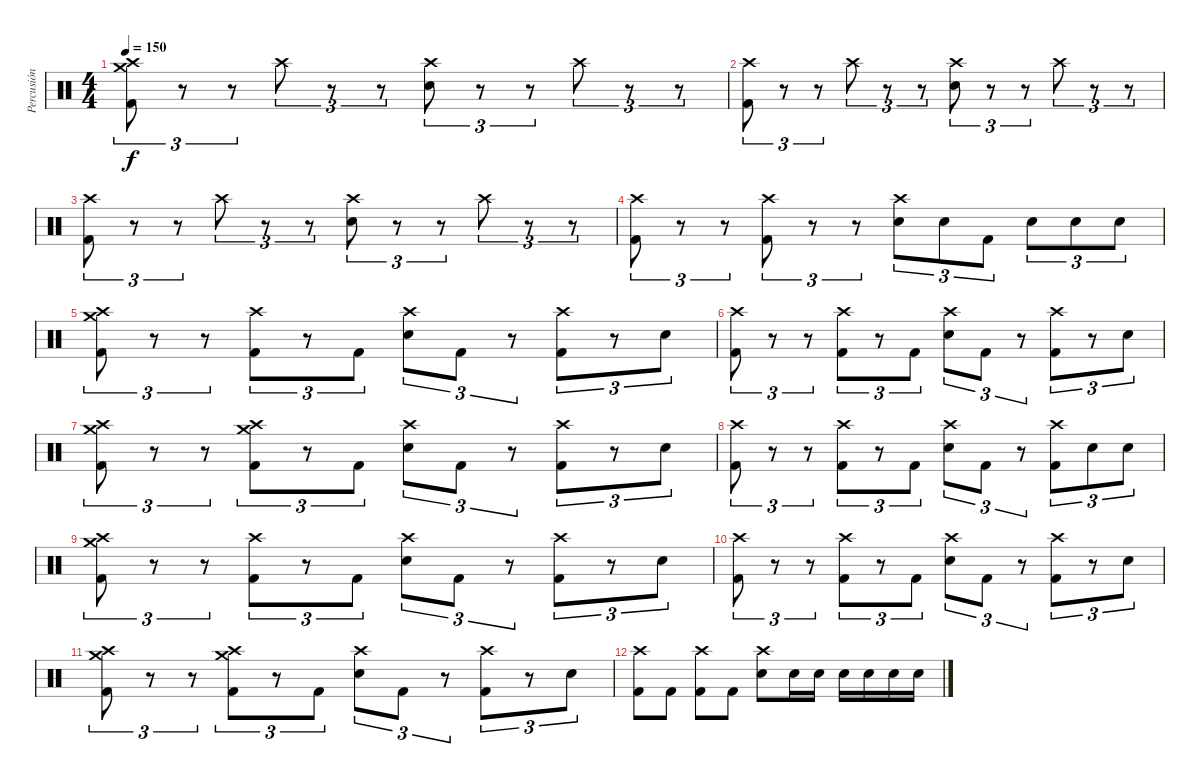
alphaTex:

\track ("Percusión" "Percusión") {instrument percussion}
\staff {score}
\articulation defaults
\ts (4 4)
\tempo 150
\clef neutral
\ks c
("Crash medium (hit)" "Crash high (hit)" "Kick (hit) 2").8{tu (3 2) dy f} r.8{tu (3 2)} r.8{tu (3 2)} "Crash high (hit)".8{tu (3 2)} r.8{tu (3 2)} r.8{tu (3 2)} ("Crash high (hit)" "Electric Snare (hit)").8{tu (3 2)} r.8{tu (3 2)} r.8{tu (3 2)} "Crash high (hit)".8{tu (3 2)} r.8{tu (3 2)} r.8{tu (3 2)} |
("Crash high (hit)" "Kick (hit) 2").8{tu (3 2)} r.8{tu (3 2)} r.8{tu (3 2)} "Crash high (hit)".8{tu (3 2)} r.8{tu (3 2)} r.8{tu (3 2)} ("Crash high (hit)" "Electric Snare (hit)").8{tu (3 2)} r.8{tu (3 2)} r.8{tu (3 2)} "Crash high (hit)".8{tu (3 2)} r.8{tu (3 2)} r.8{tu (3 2)} |
("Crash high (hit)" "Kick (hit) 2").8{tu (3 2)} r.8{tu (3 2)} r.8{tu (3 2)} "Crash high (hit)".8{tu (3 2)} r.8{tu (3 2)} r.8{tu (3 2)} ("Crash high (hit)" "Electric Snare (hit)").8{tu (3 2)} r.8{tu (3 2)} r.8{tu (3 2)} "Crash high (hit)".8{tu (3 2)} r.8{tu (3 2)} r.8{tu (3 2)} |
("Crash high (hit)" "Kick (hit) 2").8{tu (3 2)} r.8{tu (3 2)} r.8{tu (3 2)} ("Crash high (hit)" "Kick (hit) 2").8{tu (3 2)} r.8{tu (3 2)} r.8{tu (3 2)} ("Crash high (hit)" "Electric Snare (hit)").8{tu (3 2)} "Electric Snare (hit)".8{tu (3 2)} "Kick (hit) 2".8{tu (3 2)} "Electric Snare (hit)".8{tu (3 2)} "Electric Snare (hit)".8{tu (3 2)} "Electric Snare (hit)".8{tu (3 2)} |
("Crash medium (hit)" "Crash high (hit)" "Kick (hit) 2").8{tu (3 2)} r.8{tu (3 2)} r.8{tu (3 2)} ("Crash high (hit)" "Kick (hit) 2").8{tu (3 2)} r.8{tu (3 2)} "Kick (hit) 2".8{tu (3 2)} ("Crash high (hit)" "Electric Snare (hit)").8{tu (3 2)} "Kick (hit) 2".8{tu (3 2)} r.8{tu (3 2)} ("Crash high (hit)" "Kick (hit) 2").8{tu (3 2)} r.8{tu (3 2)} "Electric Snare (hit)".8{tu (3 2)} |
("Crash high (hit)" "Kick (hit) 2").8{tu (3 2)} r.8{tu (3 2)} r.8{tu (3 2)} ("Crash high (hit)" "Kick (hit) 2").8{tu (3 2)} r.8{tu (3 2)} "Kick (hit) 2".8{tu (3 2)} ("Crash high (hit)" "Electric Snare (hit)").8{tu (3 2)} "Kick (hit) 2".8{tu (3 2)} r.8{tu (3 2)} ("Crash high (hit)" "Kick (hit) 2").8{tu (3 2)} r.8{tu (3 2)} "Electric Snare (hit)".8{tu (3 2)} |
("Crash medium (hit)" "Crash high (hit)" "Kick (hit) 2").8{tu (3 2)} r.8{tu (3 2)} r.8{tu (3 2)} ("Crash medium (hit)" "Crash high (hit)" "Kick (hit) 2").8{tu (3 2)} r.8{tu (3 2)} "Kick (hit) 2".8{tu (3 2)} ("Crash high (hit)" "Electric Snare (hit)").8{tu (3 2)} "Kick (hit) 2".8{tu (3 2)} r.8{tu (3 2)} ("Crash high (hit)" "Kick (hit) 2").8{tu (3 2)} r.8{tu (3 2)} "Electric Snare (hit)".8{tu (3 2)} |
("Crash high (hit)" "Kick (hit) 2").8{tu (3 2)} r.8{tu (3 2)} r.8{tu (3 2)} ("Crash high (hit)" "Kick (hit) 2").8{tu (3 2)} r.8{tu (3 2)} "Kick (hit) 2".8{tu (3 2)} ("Crash high (hit)" "Electric Snare (hit)").8{tu (3 2)} "Kick (hit) 2".8{tu (3 2)} r.8{tu (3 2)} ("Crash high (hit)" "Kick (hit) 2").8{tu (3 2)} "Electric Snare (hit)".8{tu (3 2)} "Electric Snare (hit)".8{tu (3 2)} |
("Crash medium (hit)" "Crash high (hit)" "Kick (hit) 2").8{tu (3 2)} r.8{tu (3 2)} r.8{tu (3 2)} ("Crash high (hit)" "Kick (hit) 2").8{tu (3 2)} r.8{tu (3 2)} "Kick (hit) 2".8{tu (3 2)} ("Crash high (hit)" "Electric Snare (hit)").8{tu (3 2)} "Kick (hit) 2".8{tu (3 2)} r.8{tu (3 2)} ("Crash high (hit)" "Kick (hit) 2").8{tu (3 2)} r.8{tu (3 2)} "Electric Snare (hit)".8{tu (3 2)} |
("Crash high (hit)" "Kick (hit) 2").8{tu (3 2)} r.8{tu (3 2)} r.8{tu (3 2)} ("Crash high (hit)" "Kick (hit) 2").8{tu (3 2)} r.8{tu (3 2)} "Kick (hit) 2".8{tu (3 2)} ("Crash high (hit)" "Electric Snare (hit)").8{tu (3 2)} "Kick (hit) 2".8{tu (3 2)} r.8{tu (3 2)} ("Crash high (hit)" "Kick (hit) 2").8{tu (3 2)} r.8{tu (3 2)} "Electric Snare (hit)".8{tu (3 2)} |
("Crash medium (hit)" "Crash high (hit)" "Kick (hit) 2").8{tu (3 2)} r.8{tu (3 2)} r.8{tu (3 2)} ("Crash medium (hit)" "Crash high (hit)" "Kick (hit) 2").8{tu (3 2)} r.8{tu (3 2)} "Kick (hit) 2".8{tu (3 2)} ("Crash high (hit)" "Electric Snare (hit)").8{tu (3 2)} "Kick (hit) 2".8{tu (3 2)} r.8{tu (3 2)} ("Crash high (hit)" "Kick (hit) 2").8{tu (3 2)} r.8{tu (3 2)} "Electric Snare (hit)".8{tu (3 2)} |
("Crash high (hit)" "Kick (hit) 2").8 "Kick (hit) 2".8 ("Crash high (hit)" "Kick (hit) 2").8 "Kick (hit) 2".8 ("Crash high (hit)" "Electric Snare (hit)").8 "Electric Snare (hit)".16 "Electric Snare (hit)".16 "Electric Snare (hit)".16 "Electric Snare (hit)".16 "Electric Snare (hit)".16 "Electric Snare (hit)".16
